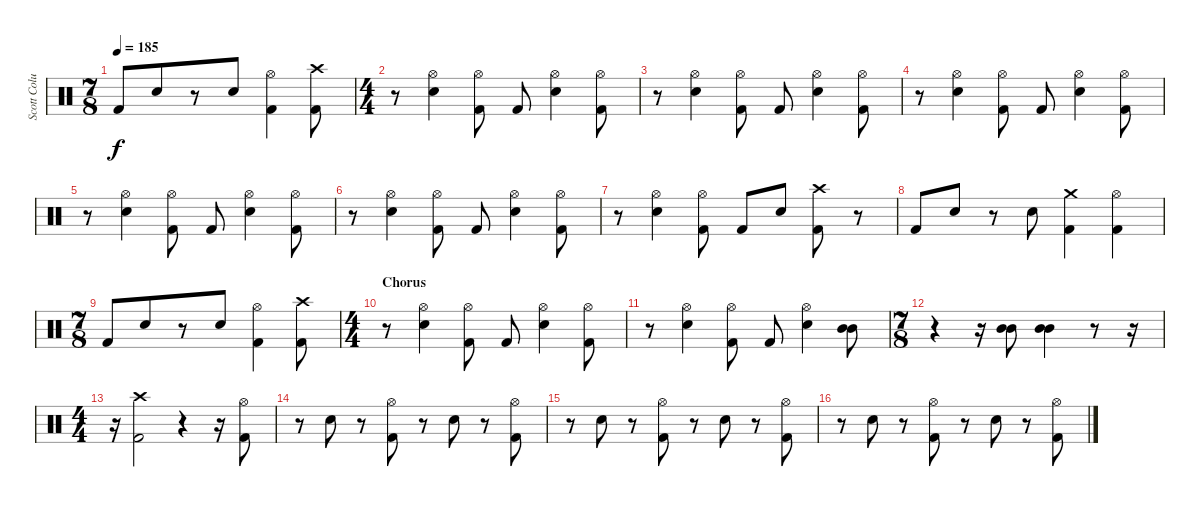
\track ("Scott Columbus" "Scott Colu") {instrument percussion}
\staff {score}
\articulation defaults
\ts (7 8)
\tempo 185
\clef neutral
\ks c "Kick (hit) 2".8{dy f} "Snare (hit) 2".8
r.8 "Snare (hit) 2".8 ("Hi-Hat (open)" "Kick (hit) 2").4 ("Crash high (hit)" "Kick (hit) 2").8 |
\ts (4 4)
r.8 ("Hi-Hat (open)" "Snare (hit) 2").4 ("Hi-Hat (open)" "Kick (hit) 2").8 "Kick (hit) 2".8 ("Hi-Hat (open)" "Snare (hit) 2").4 ("Hi-Hat (open)" "Kick (hit) 2").8 |
r.8 ("Hi-Hat (open)" "Snare (hit) 2").4 ("Hi-Hat (open)" "Kick (hit) 2").8 "Kick (hit) 2".8 ("Hi-Hat (open)" "Snare (hit) 2").4 ("Hi-Hat (open)" "Kick (hit) 2").8 |
r.8 ("Hi-Hat (open)" "Snare (hit) 2").4 ("Hi-Hat (open)" "Kick (hit) 2").8 "Kick (hit) 2".8 ("Hi-Hat (open)" "Snare (hit) 2").4 ("Hi-Hat (open)" "Kick (hit) 2").8 |
r.8 ("Hi-Hat (open)" "Snare (hit) 2").4 ("Hi-Hat (open)" "Kick (hit) 2").8 "Kick (hit) 2".8 ("Hi-Hat (open)" "Snare (hit) 2").4 ("Hi-Hat (open)" "Kick (hit) 2").8 |
r.8 ("Hi-Hat (open)" "Snare (hit) 2").4 ("Hi-Hat (open)" "Kick (hit) 2").8 "Kick (hit) 2".8 ("Hi-Hat (open)" "Snare (hit) 2").4 ("Hi-Hat (open)" "Kick (hit) 2").8 |
r.8 ("Hi-Hat (open)" "Snare (hit) 2").4 ("Hi-Hat (open)" "Kick (hit) 2").8 "Kick (hit) 2".8 "Snare (hit) 2".8 ("Crash high (hit)" "Kick (hit) 2").8 r.8 |
"Kick (hit) 2".8 "Snare (hit) 2".8 r.8 "Snare (hit) 2".8 ("Crash medium (hit)" "Kick (hit) 2").4 ("Hi-Hat (open)" "Kick (hit) 2").4 |
\ts (7 8)
"Kick (hit) 2".8 "Snare (hit) 2".8 r.8 "Snare (hit) 2".8 ("Hi-Hat (open)" "Kick (hit) 2").4 ("Crash high (hit)" "Kick (hit) 2").8 |
\ts (4 4)
\section ("" "Chorus")
r.8 ("Hi-Hat (open)" "Snare (hit) 2").4 ("Hi-Hat (open)" "Kick (hit) 2").8 "Kick (hit) 2".8 ("Hi-Hat (open)" "Snare (hit) 2").4 ("Hi-Hat (open)" "Kick (hit) 2").8 |
r.8 ("Hi-Hat (open)" "Snare (hit) 2").4 ("Hi-Hat (open)" "Kick (hit) 2").8 "Kick (hit) 2".8 ("Hi-Hat (open)" "Snare (hit) 2").4 ("Mid Tom (hit)" "Mid Tom (hit)").8 |
\ts (7 8)
r.4 r.16 ("Mid Tom (hit)" "Mid Tom (hit)").8 ("Mid Tom (hit)" "Mid Tom (hit)").4 r.8 r.16 |
\ts (4 4)
r.16 ("Crash high (hit)" "Kick (hit) 2").2 r.4 r.16 ("Hi-Hat (open)" "Kick (hit) 2").8 |
r.8 "Snare (hit) 2".8 r.8 ("Hi-Hat (open)" "Kick (hit) 2").8 r.8 "Snare (hit) 2".8 r.8 ("Hi-Hat (open)" "Kick (hit) 2").8 |
r.8 "Snare (hit) 2".8 r.8 ("Hi-Hat (open)" "Kick (hit) 2").8 r.8 "Snare (hit) 2".8 r.8 ("Hi-Hat (open)" "Kick (hit) 2").8 |
r.8 "Snare (hit) 2".8 r.8 ("Hi-Hat (open)" "Kick (hit) 2").8 r.8 "Snare (hit) 2".8 r.8 ("Hi-Hat (open)" "Kick (hit) 2").8
